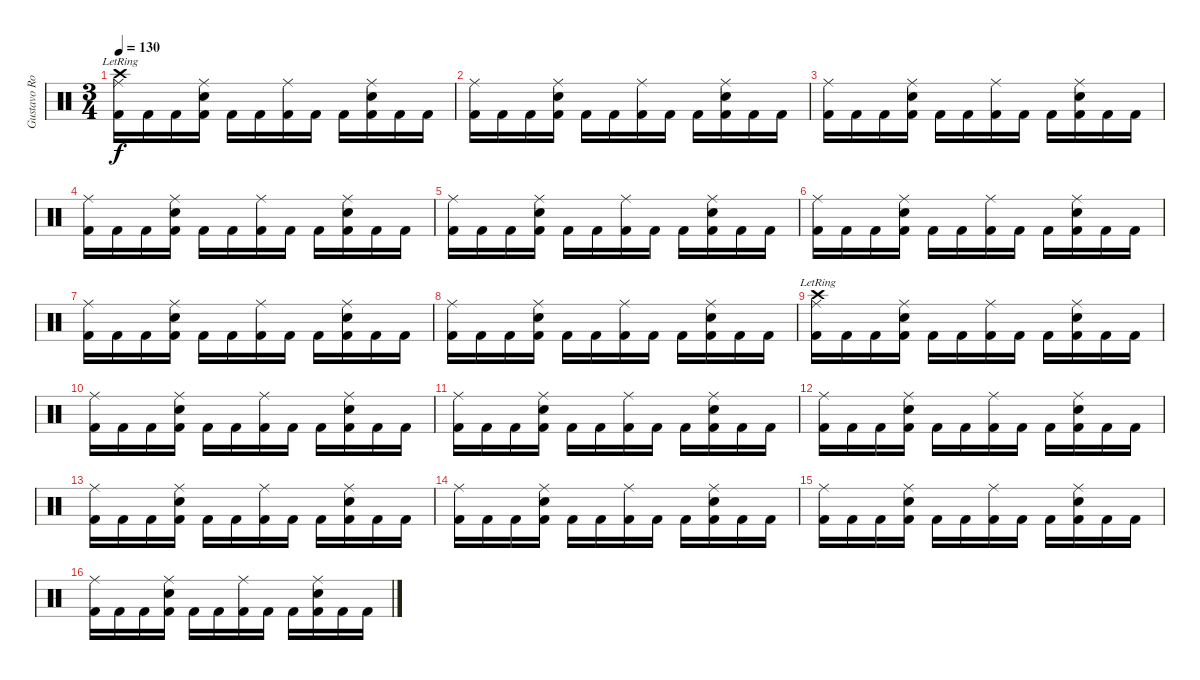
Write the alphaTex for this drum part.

\track ("Gustavo Rowek" "Gustavo Ro") {instrument percussion}
\staff {score}
\articulation defaults
\ts (3 4)
\tempo 130
\clef neutral
\ks c
("Ride (middle)" "Crash high (hit)"{lr} "Kick (hit) 2").16{dy f} "Kick (hit) 2".16 "Kick (hit) 2".16 ("Ride (middle)" "Snare (hit) 2" "Kick (hit) 2").16 "Kick (hit) 2".16 "Kick (hit) 2".16 ("Ride (middle)" "Kick (hit) 2").16 "Kick (hit) 2".16 "Kick (hit) 2".16 ("Ride (middle)" "Snare (hit) 2" "Kick (hit) 2").16 "Kick (hit) 2".16 "Kick (hit) 2".16 |
("Ride (middle)" "Kick (hit) 2").16 "Kick (hit) 2".16 "Kick (hit) 2".16 ("Ride (middle)" "Snare (hit) 2" "Kick (hit) 2").16 "Kick (hit) 2".16 "Kick (hit) 2".16 ("Ride (middle)" "Kick (hit) 2").16 "Kick (hit) 2".16 "Kick (hit) 2".16 ("Ride (middle)" "Snare (hit) 2" "Kick (hit) 2").16 "Kick (hit) 2".16 "Kick (hit) 2".16 |
("Ride (middle)" "Kick (hit) 2").16 "Kick (hit) 2".16 "Kick (hit) 2".16 ("Ride (middle)" "Snare (hit) 2" "Kick (hit) 2").16 "Kick (hit) 2".16 "Kick (hit) 2".16 ("Ride (middle)" "Kick (hit) 2").16 "Kick (hit) 2".16 "Kick (hit) 2".16 ("Ride (middle)" "Snare (hit) 2" "Kick (hit) 2").16 "Kick (hit) 2".16 "Kick (hit) 2".16 |
("Ride (middle)" "Kick (hit) 2").16 "Kick (hit) 2".16 "Kick (hit) 2".16 ("Ride (middle)" "Snare (hit) 2" "Kick (hit) 2").16 "Kick (hit) 2".16 "Kick (hit) 2".16 ("Ride (middle)" "Kick (hit) 2").16 "Kick (hit) 2".16 "Kick (hit) 2".16 ("Ride (middle)" "Snare (hit) 2" "Kick (hit) 2").16 "Kick (hit) 2".16 "Kick (hit) 2".16 |
("Ride (middle)" "Kick (hit) 2").16 "Kick (hit) 2".16 "Kick (hit) 2".16 ("Ride (middle)" "Snare (hit) 2" "Kick (hit) 2").16 "Kick (hit) 2".16 "Kick (hit) 2".16 ("Ride (middle)" "Kick (hit) 2").16 "Kick (hit) 2".16 "Kick (hit) 2".16 ("Ride (middle)" "Snare (hit) 2" "Kick (hit) 2").16 "Kick (hit) 2".16 "Kick (hit) 2".16 |
("Ride (middle)" "Kick (hit) 2").16 "Kick (hit) 2".16 "Kick (hit) 2".16 ("Ride (middle)" "Snare (hit) 2" "Kick (hit) 2").16 "Kick (hit) 2".16 "Kick (hit) 2".16 ("Ride (middle)" "Kick (hit) 2").16 "Kick (hit) 2".16 "Kick (hit) 2".16 ("Ride (middle)" "Snare (hit) 2" "Kick (hit) 2").16 "Kick (hit) 2".16 "Kick (hit) 2".16 |
("Ride (middle)" "Kick (hit) 2").16 "Kick (hit) 2".16 "Kick (hit) 2".16 ("Ride (middle)" "Snare (hit) 2" "Kick (hit) 2").16 "Kick (hit) 2".16 "Kick (hit) 2".16 ("Ride (middle)" "Kick (hit) 2").16 "Kick (hit) 2".16 "Kick (hit) 2".16 ("Ride (middle)" "Snare (hit) 2" "Kick (hit) 2").16 "Kick (hit) 2".16 "Kick (hit) 2".16 |
("Ride (middle)" "Kick (hit) 2").16 "Kick (hit) 2".16 "Kick (hit) 2".16 ("Ride (middle)" "Snare (hit) 2" "Kick (hit) 2").16 "Kick (hit) 2".16 "Kick (hit) 2".16 ("Ride (middle)" "Kick (hit) 2").16 "Kick (hit) 2".16 "Kick (hit) 2".16 ("Ride (middle)" "Snare (hit) 2" "Kick (hit) 2").16 "Kick (hit) 2".16 "Kick (hit) 2".16 |
("Ride (middle)" "Crash high (hit)"{lr} "Kick (hit) 2").16 "Kick (hit) 2".16 "Kick (hit) 2".16 ("Ride (middle)" "Snare (hit) 2" "Kick (hit) 2").16 "Kick (hit) 2".16 "Kick (hit) 2".16 ("Ride (middle)" "Kick (hit) 2").16 "Kick (hit) 2".16 "Kick (hit) 2".16 ("Ride (middle)" "Snare (hit) 2" "Kick (hit) 2").16 "Kick (hit) 2".16 "Kick (hit) 2".16 |
("Ride (middle)" "Kick (hit) 2").16 "Kick (hit) 2".16 "Kick (hit) 2".16 ("Ride (middle)" "Snare (hit) 2" "Kick (hit) 2").16 "Kick (hit) 2".16 "Kick (hit) 2".16 ("Ride (middle)" "Kick (hit) 2").16 "Kick (hit) 2".16 "Kick (hit) 2".16 ("Ride (middle)" "Snare (hit) 2" "Kick (hit) 2").16 "Kick (hit) 2".16 "Kick (hit) 2".16 |
("Ride (middle)" "Kick (hit) 2").16 "Kick (hit) 2".16 "Kick (hit) 2".16 ("Ride (middle)" "Snare (hit) 2" "Kick (hit) 2").16 "Kick (hit) 2".16 "Kick (hit) 2".16 ("Ride (middle)" "Kick (hit) 2").16 "Kick (hit) 2".16 "Kick (hit) 2".16 ("Ride (middle)" "Snare (hit) 2" "Kick (hit) 2").16 "Kick (hit) 2".16 "Kick (hit) 2".16 |
("Ride (middle)" "Kick (hit) 2").16 "Kick (hit) 2".16 "Kick (hit) 2".16 ("Ride (middle)" "Snare (hit) 2" "Kick (hit) 2").16 "Kick (hit) 2".16 "Kick (hit) 2".16 ("Ride (middle)" "Kick (hit) 2").16 "Kick (hit) 2".16 "Kick (hit) 2".16 ("Ride (middle)" "Snare (hit) 2" "Kick (hit) 2").16 "Kick (hit) 2".16 "Kick (hit) 2".16 |
("Ride (middle)" "Kick (hit) 2").16 "Kick (hit) 2".16 "Kick (hit) 2".16 ("Ride (middle)" "Snare (hit) 2" "Kick (hit) 2").16 "Kick (hit) 2".16 "Kick (hit) 2".16 ("Ride (middle)" "Kick (hit) 2").16 "Kick (hit) 2".16 "Kick (hit) 2".16 ("Ride (middle)" "Snare (hit) 2" "Kick (hit) 2").16 "Kick (hit) 2".16 "Kick (hit) 2".16 |
("Ride (middle)" "Kick (hit) 2").16 "Kick (hit) 2".16 "Kick (hit) 2".16 ("Ride (middle)" "Snare (hit) 2" "Kick (hit) 2").16 "Kick (hit) 2".16 "Kick (hit) 2".16 ("Ride (middle)" "Kick (hit) 2").16 "Kick (hit) 2".16 "Kick (hit) 2".16 ("Ride (middle)" "Snare (hit) 2" "Kick (hit) 2").16 "Kick (hit) 2".16 "Kick (hit) 2".16 |
("Ride (middle)" "Kick (hit) 2").16 "Kick (hit) 2".16 "Kick (hit) 2".16 ("Ride (middle)" "Snare (hit) 2" "Kick (hit) 2").16 "Kick (hit) 2".16 "Kick (hit) 2".16 ("Ride (middle)" "Kick (hit) 2").16 "Kick (hit) 2".16 "Kick (hit) 2".16 ("Ride (middle)" "Snare (hit) 2" "Kick (hit) 2").16 "Kick (hit) 2".16 "Kick (hit) 2".16 |
("Ride (middle)" "Kick (hit) 2").16 "Kick (hit) 2".16 "Kick (hit) 2".16 ("Ride (middle)" "Snare (hit) 2" "Kick (hit) 2").16 "Kick (hit) 2".16 "Kick (hit) 2".16 ("Ride (middle)" "Kick (hit) 2").16 "Kick (hit) 2".16 "Kick (hit) 2".16 ("Ride (middle)" "Snare (hit) 2" "Kick (hit) 2").16 "Kick (hit) 2".16 "Kick (hit) 2".16
